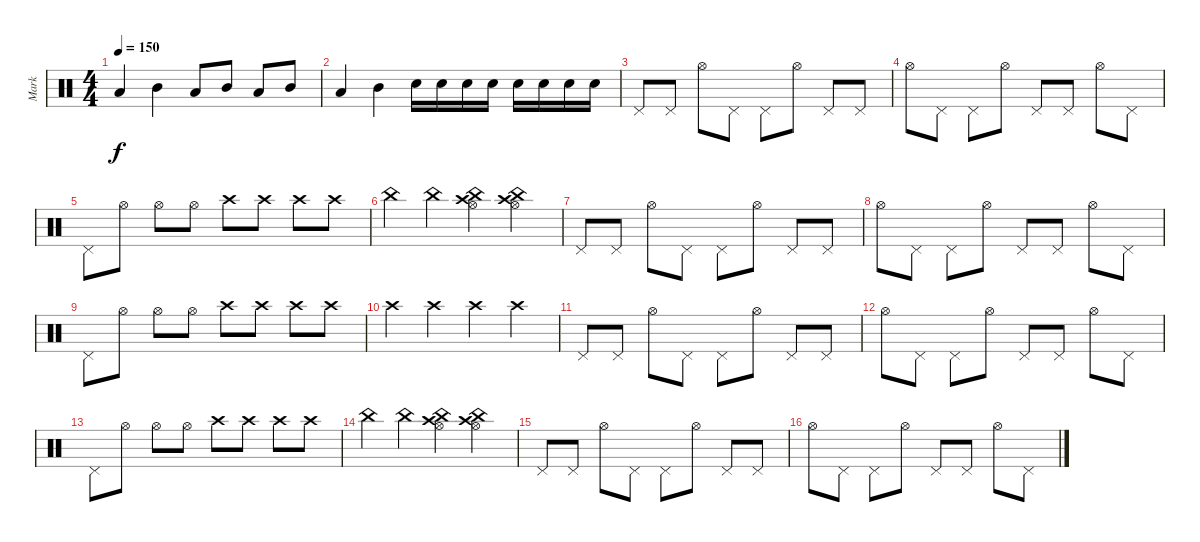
\track ("Mark" "Mark") {instrument percussion}
\staff {score}
\articulation defaults
\ts (4 4)
\tempo 150
\clef neutral
\ks c "Low Tom (hit)".4{dy f} "Mid Tom (hit)".4 "Low Tom (hit)".8 "Mid Tom (hit)".8 "Low Tom (hit)".8 "Mid Tom (hit)".8
|
"Low Tom (hit)".4 "Mid Tom (hit)".4 "Snare (hit) 2".16 "Snare (hit) 2".16 "Snare (hit) 2".16 "Snare (hit) 2".16 "Snare (hit) 2".16 "Snare (hit) 2".16 "Snare (hit) 2".16 "Snare (hit) 2".16 |
"Pedal Hi-Hat (hit)".8 "Pedal Hi-Hat (hit)".8 "Hi-Hat (open)".8 "Pedal Hi-Hat (hit)".8 "Pedal Hi-Hat (hit)".8 "Hi-Hat (open)".8 "Pedal Hi-Hat (hit)".8 "Pedal Hi-Hat (hit)".8 |
"Hi-Hat (open)".8 "Pedal Hi-Hat (hit)".8 "Pedal Hi-Hat (hit)".8 "Hi-Hat (open)".8 "Pedal Hi-Hat (hit)".8 "Pedal Hi-Hat (hit)".8 "Hi-Hat (open)".8 "Pedal Hi-Hat (hit)".8 |
"Pedal Hi-Hat (hit)".8 "Hi-Hat (open)".8 "Hi-Hat (open)".8 "Hi-Hat (open)".8 "Crash high (hit)".8 "Crash high (hit)".8 "Crash high (hit)".8 "Crash high (hit)".8 |
"China (hit)".4 "China (hit)".4 ("Hi-Hat (open)" "Crash high (hit)" "China (hit)").4 ("Hi-Hat (open)" "Crash high (hit)" "China (hit)").4 |
"Pedal Hi-Hat (hit)".8 "Pedal Hi-Hat (hit)".8 "Hi-Hat (open)".8 "Pedal Hi-Hat (hit)".8 "Pedal Hi-Hat (hit)".8 "Hi-Hat (open)".8 "Pedal Hi-Hat (hit)".8 "Pedal Hi-Hat (hit)".8 |
"Hi-Hat (open)".8 "Pedal Hi-Hat (hit)".8 "Pedal Hi-Hat (hit)".8 "Hi-Hat (open)".8 "Pedal Hi-Hat (hit)".8 "Pedal Hi-Hat (hit)".8 "Hi-Hat (open)".8 "Pedal Hi-Hat (hit)".8 |
"Pedal Hi-Hat (hit)".8 "Hi-Hat (open)".8 "Hi-Hat (open)".8 "Hi-Hat (open)".8 "Crash high (hit)".8 "Crash high (hit)".8 "Crash high (hit)".8 "Crash high (hit)".8 |
"Crash high (hit)".4 "Crash high (hit)".4 "Crash high (hit)".4 "Crash high (hit)".4 |
"Pedal Hi-Hat (hit)".8 "Pedal Hi-Hat (hit)".8 "Hi-Hat (open)".8 "Pedal Hi-Hat (hit)".8 "Pedal Hi-Hat (hit)".8 "Hi-Hat (open)".8 "Pedal Hi-Hat (hit)".8 "Pedal Hi-Hat (hit)".8 |
"Hi-Hat (open)".8 "Pedal Hi-Hat (hit)".8 "Pedal Hi-Hat (hit)".8 "Hi-Hat (open)".8 "Pedal Hi-Hat (hit)".8 "Pedal Hi-Hat (hit)".8 "Hi-Hat (open)".8 "Pedal Hi-Hat (hit)".8 |
"Pedal Hi-Hat (hit)".8 "Hi-Hat (open)".8 "Hi-Hat (open)".8 "Hi-Hat (open)".8 "Crash high (hit)".8 "Crash high (hit)".8 "Crash high (hit)".8 "Crash high (hit)".8 |
"China (hit)".4 "China (hit)".4 ("Hi-Hat (open)" "Crash high (hit)" "China (hit)").4 ("Hi-Hat (open)" "Crash high (hit)" "China (hit)").4 |
"Pedal Hi-Hat (hit)".8 "Pedal Hi-Hat (hit)".8 "Hi-Hat (open)".8 "Pedal Hi-Hat (hit)".8 "Pedal Hi-Hat (hit)".8 "Hi-Hat (open)".8 "Pedal Hi-Hat (hit)".8 "Pedal Hi-Hat (hit)".8 |
"Hi-Hat (open)".8 "Pedal Hi-Hat (hit)".8 "Pedal Hi-Hat (hit)".8 "Hi-Hat (open)".8 "Pedal Hi-Hat (hit)".8 "Pedal Hi-Hat (hit)".8 "Hi-Hat (open)".8 "Pedal Hi-Hat (hit)".8
